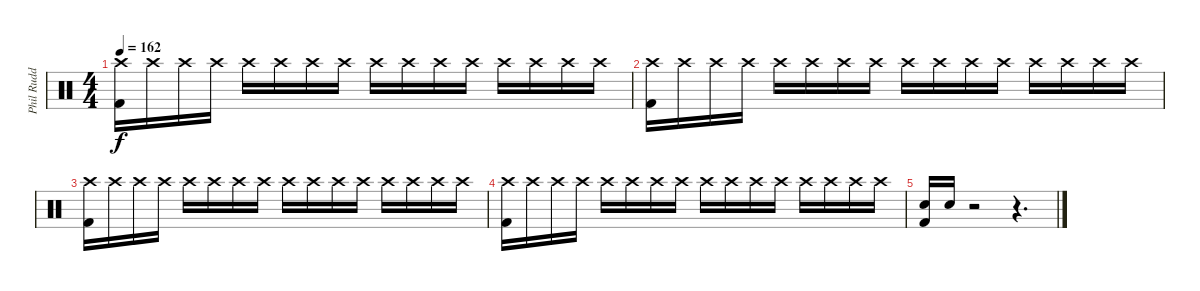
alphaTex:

\track ("Phil Rudd" "Phil Rudd") {instrument percussion}
\staff {score}
\articulation defaults
\ts (4 4)
\tempo 162
\clef neutral
\ks c
("Crash high (hit)" "Kick (hit) 2").16{dy f} "Crash high (hit)".16 "Crash high (hit)".16 "Crash high (hit)".16 "Crash high (hit)".16 "Crash high (hit)".16 "Crash high (hit)".16 "Crash high (hit)".16 "Crash high (hit)".16 "Crash high (hit)".16 "Crash high (hit)".16 "Crash high (hit)".16 "Crash high (hit)".16 "Crash high (hit)".16 "Crash high (hit)".16 "Crash high (hit)".16 |
("Crash high (hit)" "Kick (hit) 2").16 "Crash high (hit)".16 "Crash high (hit)".16 "Crash high (hit)".16 "Crash high (hit)".16 "Crash high (hit)".16 "Crash high (hit)".16 "Crash high (hit)".16 "Crash high (hit)".16 "Crash high (hit)".16 "Crash high (hit)".16 "Crash high (hit)".16 "Crash high (hit)".16 "Crash high (hit)".16 "Crash high (hit)".16 "Crash high (hit)".16 |
("Crash high (hit)" "Kick (hit) 2").16 "Crash high (hit)".16 "Crash high (hit)".16 "Crash high (hit)".16 "Crash high (hit)".16 "Crash high (hit)".16 "Crash high (hit)".16 "Crash high (hit)".16 "Crash high (hit)".16 "Crash high (hit)".16 "Crash high (hit)".16 "Crash high (hit)".16 "Crash high (hit)".16 "Crash high (hit)".16 "Crash high (hit)".16 "Crash high (hit)".16 |
("Crash high (hit)" "Kick (hit) 2").16 "Crash high (hit)".16 "Crash high (hit)".16 "Crash high (hit)".16 "Crash high (hit)".16 "Crash high (hit)".16 "Crash high (hit)".16 "Crash high (hit)".16 "Crash high (hit)".16 "Crash high (hit)".16 "Crash high (hit)".16 "Crash high (hit)".16 "Crash high (hit)".16 "Crash high (hit)".16 "Crash high (hit)".16 "Crash high (hit)".16 |
("Snare (hit) 2" "Kick (hit) 2").16 "Snare (hit) 2".16 r.2 r.4{d}
